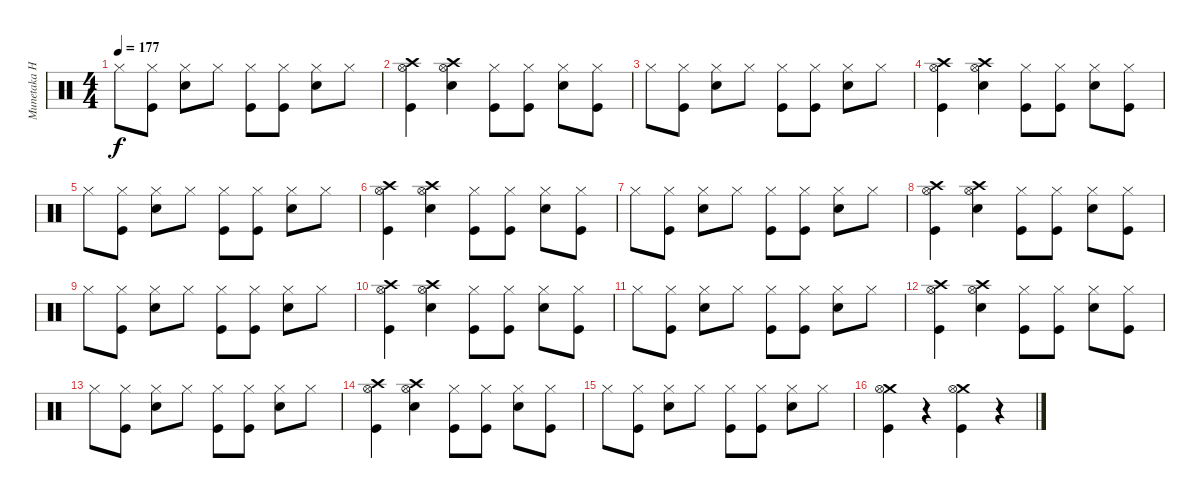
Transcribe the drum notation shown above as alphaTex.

\track ("Munetaka Higuchi" "Munetaka H") {instrument percussion}
\staff {score}
\articulation defaults
\ts (4 4)
\tempo 177
\clef neutral
\ks c "Hi-Hat (closed)".8{dy f}
("Hi-Hat (closed)" "Kick (hit)").8 ("Hi-Hat (closed)" "Snare (hit) 2").8 "Hi-Hat (closed)".8 ("Hi-Hat (closed)" "Kick (hit)").8 ("Hi-Hat (closed)" "Kick (hit)").8 ("Hi-Hat (closed)" "Snare (hit) 2").8 "Hi-Hat (closed)".8 |
("Crash high (hit)" "Hi-Hat (open)" "Kick (hit)").4 ("Crash high (hit)" "Hi-Hat (open)" "Snare (hit) 2").4 ("Hi-Hat (closed)" "Kick (hit)").8 ("Hi-Hat (closed)" "Kick (hit)").8 ("Hi-Hat (closed)" "Snare (hit) 2").8 ("Hi-Hat (closed)" "Kick (hit)").8 |
"Hi-Hat (closed)".8 ("Hi-Hat (closed)" "Kick (hit)").8 ("Hi-Hat (closed)" "Snare (hit) 2").8 "Hi-Hat (closed)".8 ("Hi-Hat (closed)" "Kick (hit)").8 ("Hi-Hat (closed)" "Kick (hit)").8 ("Hi-Hat (closed)" "Snare (hit) 2").8 "Hi-Hat (closed)".8 |
("Crash high (hit)" "Hi-Hat (open)" "Kick (hit)").4 ("Crash high (hit)" "Hi-Hat (open)" "Snare (hit) 2").4 ("Hi-Hat (closed)" "Kick (hit)").8 ("Hi-Hat (closed)" "Kick (hit)").8 ("Hi-Hat (closed)" "Snare (hit) 2").8 ("Hi-Hat (closed)" "Kick (hit)").8 |
"Hi-Hat (closed)".8 ("Hi-Hat (closed)" "Kick (hit)").8 ("Hi-Hat (closed)" "Snare (hit) 2").8 "Hi-Hat (closed)".8 ("Hi-Hat (closed)" "Kick (hit)").8 ("Hi-Hat (closed)" "Kick (hit)").8 ("Hi-Hat (closed)" "Snare (hit) 2").8 "Hi-Hat (closed)".8 |
("Crash high (hit)" "Hi-Hat (open)" "Kick (hit)").4 ("Crash high (hit)" "Hi-Hat (open)" "Snare (hit) 2").4 ("Hi-Hat (closed)" "Kick (hit)").8 ("Hi-Hat (closed)" "Kick (hit)").8 ("Hi-Hat (closed)" "Snare (hit) 2").8 ("Hi-Hat (closed)" "Kick (hit)").8 |
"Hi-Hat (closed)".8 ("Hi-Hat (closed)" "Kick (hit)").8 ("Hi-Hat (closed)" "Snare (hit) 2").8 "Hi-Hat (closed)".8 ("Hi-Hat (closed)" "Kick (hit)").8 ("Hi-Hat (closed)" "Kick (hit)").8 ("Hi-Hat (closed)" "Snare (hit) 2").8 "Hi-Hat (closed)".8 |
("Crash high (hit)" "Hi-Hat (open)" "Kick (hit)").4 ("Crash high (hit)" "Hi-Hat (open)" "Snare (hit) 2").4 ("Hi-Hat (closed)" "Kick (hit)").8 ("Hi-Hat (closed)" "Kick (hit)").8 ("Hi-Hat (closed)" "Snare (hit) 2").8 ("Hi-Hat (closed)" "Kick (hit)").8 |
"Hi-Hat (closed)".8 ("Hi-Hat (closed)" "Kick (hit)").8 ("Hi-Hat (closed)" "Snare (hit) 2").8 "Hi-Hat (closed)".8 ("Hi-Hat (closed)" "Kick (hit)").8 ("Hi-Hat (closed)" "Kick (hit)").8 ("Hi-Hat (closed)" "Snare (hit) 2").8 "Hi-Hat (closed)".8 |
("Crash high (hit)" "Hi-Hat (open)" "Kick (hit)").4 ("Crash high (hit)" "Hi-Hat (open)" "Snare (hit) 2").4 ("Hi-Hat (closed)" "Kick (hit)").8 ("Hi-Hat (closed)" "Kick (hit)").8 ("Hi-Hat (closed)" "Snare (hit) 2").8 ("Hi-Hat (closed)" "Kick (hit)").8 |
"Hi-Hat (closed)".8 ("Hi-Hat (closed)" "Kick (hit)").8 ("Hi-Hat (closed)" "Snare (hit) 2").8 "Hi-Hat (closed)".8 ("Hi-Hat (closed)" "Kick (hit)").8 ("Hi-Hat (closed)" "Kick (hit)").8 ("Hi-Hat (closed)" "Snare (hit) 2").8 "Hi-Hat (closed)".8 |
("Crash high (hit)" "Hi-Hat (open)" "Kick (hit)").4 ("Crash high (hit)" "Hi-Hat (open)" "Snare (hit) 2").4 ("Hi-Hat (closed)" "Kick (hit)").8 ("Hi-Hat (closed)" "Kick (hit)").8 ("Hi-Hat (closed)" "Snare (hit) 2").8 ("Hi-Hat (closed)" "Kick (hit)").8 |
"Hi-Hat (closed)".8 ("Hi-Hat (closed)" "Kick (hit)").8 ("Hi-Hat (closed)" "Snare (hit) 2").8 "Hi-Hat (closed)".8 ("Hi-Hat (closed)" "Kick (hit)").8 ("Hi-Hat (closed)" "Kick (hit)").8 ("Hi-Hat (closed)" "Snare (hit) 2").8 "Hi-Hat (closed)".8 |
("Crash high (hit)" "Hi-Hat (open)" "Kick (hit)").4 ("Crash high (hit)" "Hi-Hat (open)" "Snare (hit) 2").4 ("Hi-Hat (closed)" "Kick (hit)").8 ("Hi-Hat (closed)" "Kick (hit)").8 ("Hi-Hat (closed)" "Snare (hit) 2").8 ("Hi-Hat (closed)" "Kick (hit)").8 |
"Hi-Hat (closed)".8 ("Hi-Hat (closed)" "Kick (hit)").8 ("Hi-Hat (closed)" "Snare (hit) 2").8 "Hi-Hat (closed)".8 ("Hi-Hat (closed)" "Kick (hit)").8 ("Hi-Hat (closed)" "Kick (hit)").8 ("Hi-Hat (closed)" "Snare (hit) 2").8 "Hi-Hat (closed)".8 |
("Crash medium (hit)" "Hi-Hat (open)" "Kick (hit)").4 r.4 ("Crash medium (hit)" "Hi-Hat (open)" "Kick (hit)").4 r.4
